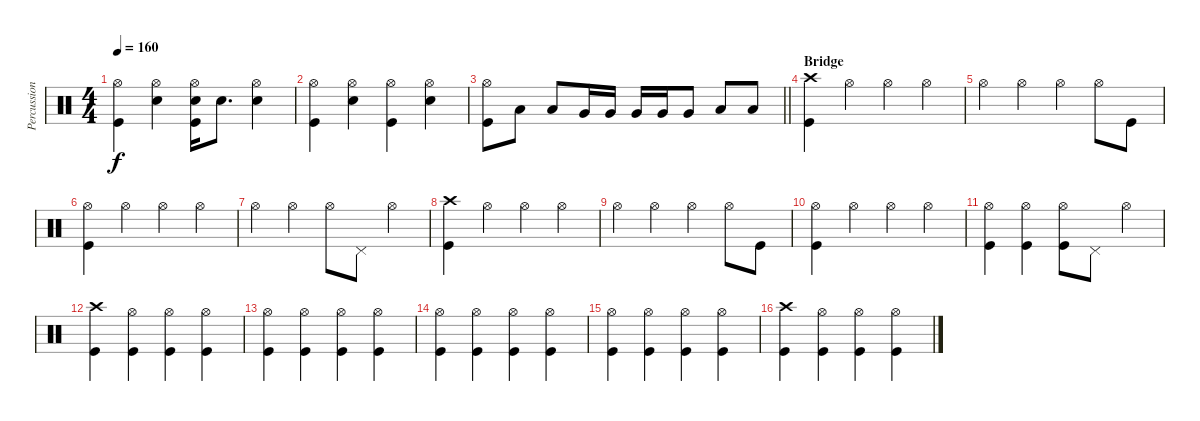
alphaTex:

\track ("Percussion" "Percussion") {instrument percussion}
\staff {score}
\articulation defaults
\ts (4 4)
\tempo 160
\clef neutral
\ks c
("Hi-Hat (open)" "Kick (hit)").4{dy f} ("Hi-Hat (open)" "Electric Snare (hit)").4 ("Hi-Hat (open)" "Electric Snare (hit)" "Kick (hit)").16 "Electric Snare (hit)".8{d} ("Hi-Hat (open)" "Electric Snare (hit)").4 |
("Hi-Hat (open)" "Kick (hit)").4 ("Hi-Hat (open)" "Electric Snare (hit)").4 ("Hi-Hat (open)" "Kick (hit)").4 ("Hi-Hat (open)" "Electric Snare (hit)").4 |
\barLineRight lightlight
("Hi-Hat (open)" "Kick (hit)").8 "Low Tom (hit)".8 "Low Tom (hit)".8 "Very Low Tom (hit)".16 "Very Low Tom (hit)".16 "Very Low Tom (hit)".16 "Very Low Tom (hit)".16 "Very Low Tom (hit)".8 "Low Floor Tom (hit)".8 "Low Floor Tom (hit)".8 |
\section ("" "Bridge")
("Crash high (hit)" "Kick (hit)").4 "Hi-Hat (open)".4 "Hi-Hat (open)".4 "Hi-Hat (open)".4 |
"Hi-Hat (open)".4 "Hi-Hat (open)".4 "Hi-Hat (open)".4 "Hi-Hat (open)".8 "Kick (hit)".8 |
("Hi-Hat (open)" "Kick (hit)").4 "Hi-Hat (open)".4 "Hi-Hat (open)".4 "Hi-Hat (open)".4 |
"Hi-Hat (open)".4 "Hi-Hat (open)".4 "Hi-Hat (open)".8 "Pedal Hi-Hat (hit)".8 "Hi-Hat (open)".4 |
("Crash high (hit)" "Kick (hit)").4 "Hi-Hat (open)".4 "Hi-Hat (open)".4 "Hi-Hat (open)".4 |
"Hi-Hat (open)".4 "Hi-Hat (open)".4 "Hi-Hat (open)".4 "Hi-Hat (open)".8 "Kick (hit)".8 |
("Hi-Hat (open)" "Kick (hit)").4 "Hi-Hat (open)".4 "Hi-Hat (open)".4 "Hi-Hat (open)".4 |
("Hi-Hat (open)" "Kick (hit)").4 ("Hi-Hat (open)" "Kick (hit)").4 ("Hi-Hat (open)" "Kick (hit)").8 "Pedal Hi-Hat (hit)".8 "Hi-Hat (open)".4 |
("Crash high (hit)" "Kick (hit)").4 ("Hi-Hat (open)" "Kick (hit)").4 ("Hi-Hat (open)" "Kick (hit)").4 ("Hi-Hat (open)" "Kick (hit)").4 |
("Hi-Hat (open)" "Kick (hit)").4 ("Hi-Hat (open)" "Kick (hit)").4 ("Hi-Hat (open)" "Kick (hit)").4 ("Hi-Hat (open)" "Kick (hit)").4 |
("Hi-Hat (open)" "Kick (hit)").4 ("Hi-Hat (open)" "Kick (hit)").4 ("Hi-Hat (open)" "Kick (hit)").4 ("Hi-Hat (open)" "Kick (hit)").4 |
("Hi-Hat (open)" "Kick (hit)").4 ("Hi-Hat (open)" "Kick (hit)").4 ("Hi-Hat (open)" "Kick (hit)").4 ("Hi-Hat (open)" "Kick (hit)").4 |
("Crash high (hit)" "Kick (hit)").4 ("Hi-Hat (open)" "Kick (hit)").4 ("Hi-Hat (open)" "Kick (hit)").4 ("Hi-Hat (open)" "Kick (hit)").4
